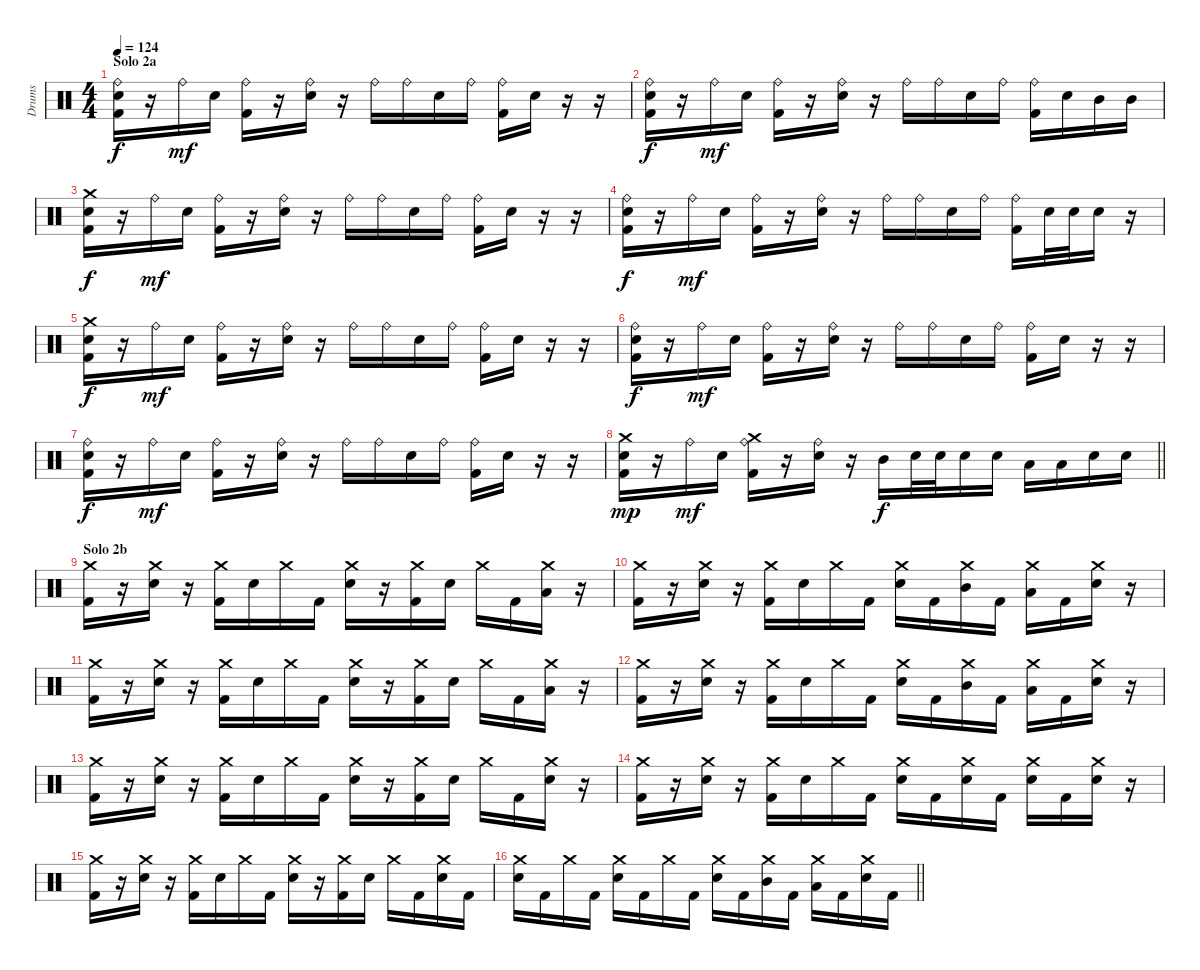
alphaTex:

\track ("Drums" "Drums") {instrument percussion}
\staff {score}
\articulation defaults
\ts (4 4)
\section ("" "Solo 2a")
\tempo 124
\clef neutral
\ks c
("Ride (bell)" "Electric Snare (hit)" "Kick (hit) 2").16{dy f} r.16 "Ride (bell)".16{dy mf} "Electric Snare (hit)".16 ("Ride (bell)" "Kick (hit) 2").16 r.16 ("Ride (bell)" "Electric Snare (hit)").16 r.16 "Ride (bell)".16 "Ride (bell)".16 "Electric Snare (hit)".16 "Ride (bell)".16 ("Ride (bell)" "Kick (hit) 2").16 "Electric Snare (hit)".16 r.16 r.16 |
("Ride (bell)" "Electric Snare (hit)" "Kick (hit) 2").16{dy f} r.16 "Ride (bell)".16{dy mf} "Electric Snare (hit)".16 ("Ride (bell)" "Kick (hit) 2").16 r.16 ("Ride (bell)" "Electric Snare (hit)").16 r.16 "Ride (bell)".16 "Ride (bell)".16 "Electric Snare (hit)".16 "Ride (bell)".16 ("Ride (bell)" "Kick (hit) 2").16 "Electric Snare (hit)".16 "Mid Tom (hit)".16 "Mid Tom (hit)".16 |
("Crash medium (hit)" "Electric Snare (hit)" "Kick (hit) 2").16{dy f} r.16 "Ride (bell)".16{dy mf} "Electric Snare (hit)".16 ("Ride (bell)" "Kick (hit) 2").16 r.16 ("Ride (bell)" "Electric Snare (hit)").16 r.16 "Ride (bell)".16 "Ride (bell)".16 "Electric Snare (hit)".16 "Ride (bell)".16 ("Ride (bell)" "Kick (hit) 2").16 "Electric Snare (hit)".16 r.16 r.16 |
("Ride (bell)" "Electric Snare (hit)" "Kick (hit) 2").16{dy f} r.16 "Ride (bell)".16{dy mf} "Electric Snare (hit)".16 ("Ride (bell)" "Kick (hit) 2").16 r.16 ("Ride (bell)" "Electric Snare (hit)").16 r.16 "Ride (bell)".16 "Ride (bell)".16 "Electric Snare (hit)".16 "Ride (bell)".16 ("Ride (bell)" "Kick (hit) 2").16 "Electric Snare (hit)".32 "Electric Snare (hit)".32 "Electric Snare (hit)".16 r.16 |
("Crash medium (hit)" "Electric Snare (hit)" "Kick (hit) 2").16{dy f} r.16 "Ride (bell)".16{dy mf} "Electric Snare (hit)".16 ("Ride (bell)" "Kick (hit) 2").16 r.16 ("Ride (bell)" "Electric Snare (hit)").16 r.16 "Ride (bell)".16 "Ride (bell)".16 "Electric Snare (hit)".16 "Ride (bell)".16 ("Ride (bell)" "Kick (hit) 2").16 "Electric Snare (hit)".16 r.16 r.16 |
("Ride (bell)" "Electric Snare (hit)" "Kick (hit) 2").16{dy f} r.16 "Ride (bell)".16{dy mf} "Electric Snare (hit)".16 ("Ride (bell)" "Kick (hit) 2").16 r.16 ("Ride (bell)" "Electric Snare (hit)").16 r.16 "Ride (bell)".16 "Ride (bell)".16 "Electric Snare (hit)".16 "Ride (bell)".16 ("Ride (bell)" "Kick (hit) 2").16 "Electric Snare (hit)".16 r.16 r.16 |
("Ride (bell)" "Electric Snare (hit)" "Kick (hit) 2").16{dy f} r.16 "Ride (bell)".16{dy mf} "Electric Snare (hit)".16 ("Ride (bell)" "Kick (hit) 2").16 r.16 ("Ride (bell)" "Electric Snare (hit)").16 r.16 "Ride (bell)".16 "Ride (bell)".16 "Electric Snare (hit)".16 "Ride (bell)".16 ("Ride (bell)" "Kick (hit) 2").16 "Electric Snare (hit)".16 r.16 r.16 |
\barLineRight lightlight
("Crash medium (hit)" "Electric Snare (hit)" "Kick (hit) 2").16{dy mp} r.16 "Ride (bell)".16{dy mf} "Electric Snare (hit)".16 ("Crash medium (hit)" "Ride (bell)" "Kick (hit) 2").16 r.16 ("Ride (bell)" "Electric Snare (hit)").16 r.16 "Mid Tom (hit)".16{dy f} "Electric Snare (hit)".32 "Electric Snare (hit)".32 "Electric Snare (hit)".16 "Electric Snare (hit)".16 "Low Tom (hit)".16 "Low Tom (hit)".16 "Electric Snare (hit)".16 "Electric Snare (hit)".16 |
\section ("" "Solo 2b")
("Crash medium (hit)" "Kick (hit) 2").16 r.16 ("Crash medium (hit)" "Electric Snare (hit)").16 r.16 ("Crash medium (hit)" "Kick (hit) 2").16 "Electric Snare (hit)".16 "Crash medium (hit)".16 "Kick (hit) 2".16 ("Crash medium (hit)" "Electric Snare (hit)").16 r.16 ("Crash medium (hit)" "Kick (hit) 2").16 "Electric Snare (hit)".16 "Crash medium (hit)".16 "Kick (hit) 2".16 ("Crash medium (hit)" "Low Tom (hit)").16 r.16 |
("Crash medium (hit)" "Kick (hit) 2").16 r.16 ("Crash medium (hit)" "Electric Snare (hit)").16 r.16 ("Crash medium (hit)" "Kick (hit) 2").16 "Electric Snare (hit)".16 "Crash medium (hit)".16 "Kick (hit) 2".16 ("Crash medium (hit)" "Electric Snare (hit)").16 "Kick (hit) 2".16 ("Crash medium (hit)" "Mid Tom (hit)").16 "Kick (hit) 2".16 ("Crash medium (hit)" "Low Tom (hit)").16 "Kick (hit) 2".16 ("Crash medium (hit)" "Electric Snare (hit)").16 r.16 |
("Crash medium (hit)" "Kick (hit) 2").16 r.16 ("Crash medium (hit)" "Electric Snare (hit)").16 r.16 ("Crash medium (hit)" "Kick (hit) 2").16 "Electric Snare (hit)".16 "Crash medium (hit)".16 "Kick (hit) 2".16 ("Crash medium (hit)" "Electric Snare (hit)").16 r.16 ("Crash medium (hit)" "Kick (hit) 2").16 "Electric Snare (hit)".16 "Crash medium (hit)".16 "Kick (hit) 2".16 ("Crash medium (hit)" "Low Tom (hit)").16 r.16 |
("Crash medium (hit)" "Kick (hit) 2").16 r.16 ("Crash medium (hit)" "Electric Snare (hit)").16 r.16 ("Crash medium (hit)" "Kick (hit) 2").16 "Electric Snare (hit)".16 "Crash medium (hit)".16 "Kick (hit) 2".16 ("Crash medium (hit)" "Electric Snare (hit)").16 "Kick (hit) 2".16 ("Crash medium (hit)" "Mid Tom (hit)").16 "Kick (hit) 2".16 ("Crash medium (hit)" "Low Tom (hit)").16 "Kick (hit) 2".16 ("Crash medium (hit)" "Electric Snare (hit)").16 r.16 |
("Crash medium (hit)" "Kick (hit) 2").16 r.16 ("Crash medium (hit)" "Electric Snare (hit)").16 r.16 ("Crash medium (hit)" "Kick (hit) 2").16 "Electric Snare (hit)".16 "Crash medium (hit)".16 "Kick (hit) 2".16 ("Crash medium (hit)" "Electric Snare (hit)").16 r.16 ("Crash medium (hit)" "Kick (hit) 2").16 "Electric Snare (hit)".16 "Crash medium (hit)".16 "Kick (hit) 2".16 ("Crash medium (hit)" "Electric Snare (hit)").16 r.16 |
("Crash medium (hit)" "Kick (hit) 2").16 r.16 ("Crash medium (hit)" "Electric Snare (hit)").16 r.16 ("Crash medium (hit)" "Kick (hit) 2").16 "Electric Snare (hit)".16 "Crash medium (hit)".16 "Kick (hit) 2".16 ("Crash medium (hit)" "Electric Snare (hit)").16 "Kick (hit) 2".16 ("Crash medium (hit)" "Electric Snare (hit)").16 "Kick (hit) 2".16 ("Crash medium (hit)" "Electric Snare (hit)").16 "Kick (hit) 2".16 ("Crash medium (hit)" "Electric Snare (hit)").16 r.16 |
("Crash medium (hit)" "Kick (hit) 2").16 r.16 ("Crash medium (hit)" "Electric Snare (hit)").16 r.16 ("Crash medium (hit)" "Kick (hit) 2").16 "Electric Snare (hit)".16 "Crash medium (hit)".16 "Kick (hit) 2".16 ("Crash medium (hit)" "Electric Snare (hit)").16 r.16 ("Crash medium (hit)" "Kick (hit) 2").16 "Electric Snare (hit)".16 "Crash medium (hit)".16 "Kick (hit) 2".16 ("Crash medium (hit)" "Electric Snare (hit)").16 "Kick (hit) 2".16 |
\barLineRight lightlight
("Crash medium (hit)" "Electric Snare (hit)").16 "Kick (hit) 2".16 "Crash medium (hit)".16 "Kick (hit) 2".16 ("Crash medium (hit)" "Electric Snare (hit)").16 "Kick (hit) 2".16 "Crash medium (hit)".16 "Kick (hit) 2".16 ("Crash medium (hit)" "Electric Snare (hit)").16 "Kick (hit) 2".16 ("Crash medium (hit)" "Mid Tom (hit)").16 "Kick (hit) 2".16 ("Crash medium (hit)" "Low Tom (hit)").16 "Kick (hit) 2".16 ("Crash medium (hit)" "Electric Snare (hit)").16 "Kick (hit) 2".16
